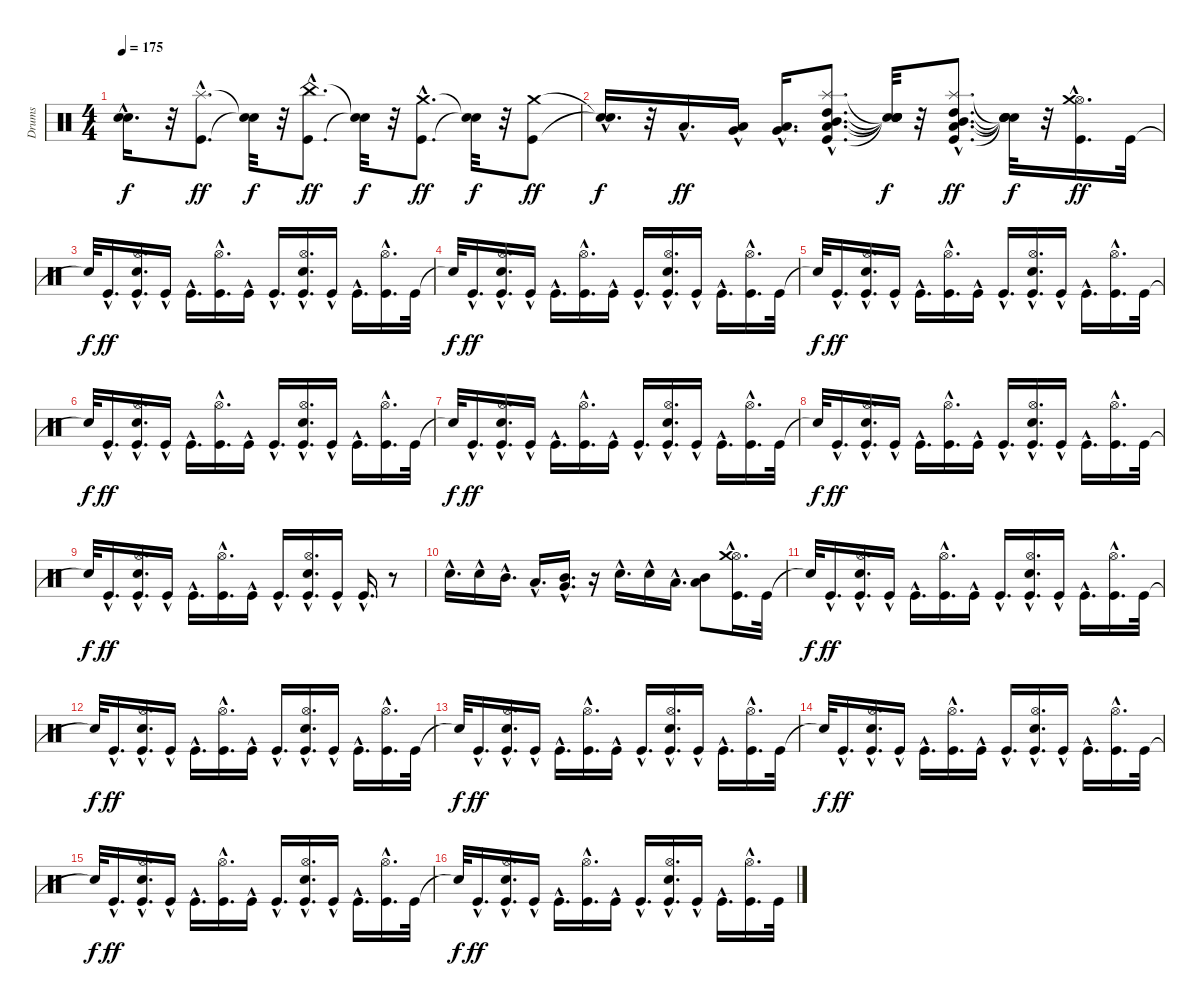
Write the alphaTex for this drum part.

\track ("Drums" "Drums") {instrument percussion}
\staff {score}
\articulation defaults
\ts (4 4)
\tempo 175
\clef neutral
\ks c
("Snare (hit)"{hac t} "Snare (hit)"{hac t}).16{d dy f} r.32 ("Kick (hit)"{hac} "Splash (hit)"{hac}).8{d dy ff} ("Snare (hit)"{t} "Snare (hit)"{t}).32{dy f} r.32 ("Kick (hit)"{hac} "China (hit)"{hac}).8{d dy ff} ("Snare (hit)"{t} "Snare (hit)"{t}).32{dy f} r.32 ("Kick (hit)"{hac} "Crash medium (hit)"{hac}).8{d dy ff} ("Snare (hit)"{t} "Snare (hit)"{t}).32{dy f} r.32 ("Kick (hit)" "Crash medium (hit)").8{dy ff} |
("Snare (hit)"{hac t} "Snare (hit)"{hac t}).16{d dy f} r.32 "Low Tom (hit)"{hac}.16{d dy ff} ("Very Low Tom (hit)"{hac} "Low Tom (hit)"{hac}).16 ("Very Low Tom (hit)"{hac} "Low Tom (hit)"{hac}).16{d} ("Kick (hit)"{hac} "Low Tom (hit)"{hac} "Mid Tom (hit)"{hac} "High Tom (hit)"{hac} "Splash (hit)"{hac}).8{d} ("Snare (hit)"{t} "Snare (hit)"{t} "Snare (hit)"{t} "Snare (hit)"{t} "Snare (hit)"{t}).32{dy f} r.32 ("Kick (hit)"{hac} "Low Tom (hit)"{hac} "Mid Tom (hit)"{hac} "High Tom (hit)"{hac} "Splash (hit)"{hac}).8{d dy ff} ("Snare (hit)"{t} "Snare (hit)"{t} "Snare (hit)"{t} "Snare (hit)"{t} "Snare (hit)"{t}).32{dy f} r.32 ("Kick (hit)"{hac} "Hi-Hat (open)"{hac} "Crash medium (hit)"{hac}).16{d dy ff} "Kick (hit)".32 |
"Snare (hit)"{t}.32{dy f} "Kick (hit)"{hac}.16{d dy ff} ("Kick (hit)"{hac} "Electric Snare (hit)"{hac} "Hi-Hat (open)"{hac}).16{d} "Kick (hit)"{hac}.16 "Kick (hit)"{hac}.16{d} ("Kick (hit)"{hac} "Hi-Hat (open)"{hac}).16{d} "Kick (hit)"{hac}.16 "Kick (hit)"{hac}.16{d} ("Kick (hit)"{hac} "Electric Snare (hit)"{hac} "Hi-Hat (open)"{hac}).16{d} "Kick (hit)"{hac}.16 "Kick (hit)"{hac}.16{d} ("Kick (hit)"{hac} "Hi-Hat (open)"{hac}).16{d} "Kick (hit)".32 |
"Snare (hit)"{t}.32{dy f} "Kick (hit)"{hac}.16{d dy ff} ("Kick (hit)"{hac} "Electric Snare (hit)"{hac} "Hi-Hat (open)"{hac}).16{d} "Kick (hit)"{hac}.16 "Kick (hit)"{hac}.16{d} ("Kick (hit)"{hac} "Hi-Hat (open)"{hac}).16{d} "Kick (hit)"{hac}.16 "Kick (hit)"{hac}.16{d} ("Kick (hit)"{hac} "Electric Snare (hit)"{hac} "Hi-Hat (open)"{hac}).16{d} "Kick (hit)"{hac}.16 "Kick (hit)"{hac}.16{d} ("Kick (hit)"{hac} "Hi-Hat (open)"{hac}).16{d} "Kick (hit)".32 |
"Snare (hit)"{t}.32{dy f} "Kick (hit)"{hac}.16{d dy ff} ("Kick (hit)"{hac} "Electric Snare (hit)"{hac} "Hi-Hat (open)"{hac}).16{d} "Kick (hit)"{hac}.16 "Kick (hit)"{hac}.16{d} ("Kick (hit)"{hac} "Hi-Hat (open)"{hac}).16{d} "Kick (hit)"{hac}.16 "Kick (hit)"{hac}.16{d} ("Kick (hit)"{hac} "Electric Snare (hit)"{hac} "Hi-Hat (open)"{hac}).16{d} "Kick (hit)"{hac}.16 "Kick (hit)"{hac}.16{d} ("Kick (hit)"{hac} "Hi-Hat (open)"{hac}).16{d} "Kick (hit)".32 |
"Snare (hit)"{t}.32{dy f} "Kick (hit)"{hac}.16{d dy ff} ("Kick (hit)"{hac} "Electric Snare (hit)"{hac} "Hi-Hat (open)"{hac}).16{d} "Kick (hit)"{hac}.16 "Kick (hit)"{hac}.16{d} ("Kick (hit)"{hac} "Hi-Hat (open)"{hac}).16{d} "Kick (hit)"{hac}.16 "Kick (hit)"{hac}.16{d} ("Kick (hit)"{hac} "Electric Snare (hit)"{hac} "Hi-Hat (open)"{hac}).16{d} "Kick (hit)"{hac}.16 "Kick (hit)"{hac}.16{d} ("Kick (hit)"{hac} "Hi-Hat (open)"{hac}).16{d} "Kick (hit)".32 |
"Snare (hit)"{t}.32{dy f} "Kick (hit)"{hac}.16{d dy ff} ("Kick (hit)"{hac} "Electric Snare (hit)"{hac} "Hi-Hat (open)"{hac}).16{d} "Kick (hit)"{hac}.16 "Kick (hit)"{hac}.16{d} ("Kick (hit)"{hac} "Hi-Hat (open)"{hac}).16{d} "Kick (hit)"{hac}.16 "Kick (hit)"{hac}.16{d} ("Kick (hit)"{hac} "Electric Snare (hit)"{hac} "Hi-Hat (open)"{hac}).16{d} "Kick (hit)"{hac}.16 "Kick (hit)"{hac}.16{d} ("Kick (hit)"{hac} "Hi-Hat (open)"{hac}).16{d} "Kick (hit)".32 |
"Snare (hit)"{t}.32{dy f} "Kick (hit)"{hac}.16{d dy ff} ("Kick (hit)"{hac} "Electric Snare (hit)"{hac} "Hi-Hat (open)"{hac}).16{d} "Kick (hit)"{hac}.16 "Kick (hit)"{hac}.16{d} ("Kick (hit)"{hac} "Hi-Hat (open)"{hac}).16{d} "Kick (hit)"{hac}.16 "Kick (hit)"{hac}.16{d} ("Kick (hit)"{hac} "Electric Snare (hit)"{hac} "Hi-Hat (open)"{hac}).16{d} "Kick (hit)"{hac}.16 "Kick (hit)"{hac}.16{d} ("Kick (hit)"{hac} "Hi-Hat (open)"{hac}).16{d} "Kick (hit)".32 |
"Snare (hit)"{t}.32{dy f} "Kick (hit)"{hac}.16{d dy ff} ("Kick (hit)"{hac} "Electric Snare (hit)"{hac} "Hi-Hat (open)"{hac}).16{d} "Kick (hit)"{hac}.16 "Kick (hit)"{hac}.16{d} ("Kick (hit)"{hac} "Hi-Hat (open)"{hac}).16{d} "Kick (hit)"{hac}.16 "Kick (hit)"{hac}.16{d} ("Kick (hit)"{hac} "Electric Snare (hit)"{hac} "Hi-Hat (open)"{hac}).16{d} "Kick (hit)"{hac}.16 "Kick (hit)"{hac}.16{d} r.8 |
"Electric Snare (hit)"{hac}.16{d} "Electric Snare (hit)"{hac}.16 "Mid Tom (hit)"{hac}.16{d} "Low Tom (hit)"{hac}.16{d} ("Very Low Tom (hit)"{hac} "Mid Tom (hit)"{hac}).16{d} r.16 "Electric Snare (hit)"{hac}.16{d} "Electric Snare (hit)"{hac}.16 "Low Tom (hit)"{hac}.16{d} ("Low Floor Tom (hit)" "Mid Tom (hit)").8 ("Kick (hit)"{hac} "Hi-Hat (open)"{hac} "Crash medium (hit)"{hac}).16{d} "Kick (hit)".32 |
"Snare (hit)"{t}.32{dy f} "Kick (hit)"{hac}.16{d dy ff} ("Kick (hit)"{hac} "Electric Snare (hit)"{hac} "Hi-Hat (open)"{hac}).16{d} "Kick (hit)"{hac}.16 "Kick (hit)"{hac}.16{d} ("Kick (hit)"{hac} "Hi-Hat (open)"{hac}).16{d} "Kick (hit)"{hac}.16 "Kick (hit)"{hac}.16{d} ("Kick (hit)"{hac} "Electric Snare (hit)"{hac} "Hi-Hat (open)"{hac}).16{d} "Kick (hit)"{hac}.16 "Kick (hit)"{hac}.16{d} ("Kick (hit)"{hac} "Hi-Hat (open)"{hac}).16{d} "Kick (hit)".32 |
"Snare (hit)"{t}.32{dy f} "Kick (hit)"{hac}.16{d dy ff} ("Kick (hit)"{hac} "Electric Snare (hit)"{hac} "Hi-Hat (open)"{hac}).16{d} "Kick (hit)"{hac}.16 "Kick (hit)"{hac}.16{d} ("Kick (hit)"{hac} "Hi-Hat (open)"{hac}).16{d} "Kick (hit)"{hac}.16 "Kick (hit)"{hac}.16{d} ("Kick (hit)"{hac} "Electric Snare (hit)"{hac} "Hi-Hat (open)"{hac}).16{d} "Kick (hit)"{hac}.16 "Kick (hit)"{hac}.16{d} ("Kick (hit)"{hac} "Hi-Hat (open)"{hac}).16{d} "Kick (hit)".32 |
"Snare (hit)"{t}.32{dy f} "Kick (hit)"{hac}.16{d dy ff} ("Kick (hit)"{hac} "Electric Snare (hit)"{hac} "Hi-Hat (open)"{hac}).16{d} "Kick (hit)"{hac}.16 "Kick (hit)"{hac}.16{d} ("Kick (hit)"{hac} "Hi-Hat (open)"{hac}).16{d} "Kick (hit)"{hac}.16 "Kick (hit)"{hac}.16{d} ("Kick (hit)"{hac} "Electric Snare (hit)"{hac} "Hi-Hat (open)"{hac}).16{d} "Kick (hit)"{hac}.16 "Kick (hit)"{hac}.16{d} ("Kick (hit)"{hac} "Hi-Hat (open)"{hac}).16{d} "Kick (hit)".32 |
"Snare (hit)"{t}.32{dy f} "Kick (hit)"{hac}.16{d dy ff} ("Kick (hit)"{hac} "Electric Snare (hit)"{hac} "Hi-Hat (open)"{hac}).16{d} "Kick (hit)"{hac}.16 "Kick (hit)"{hac}.16{d} ("Kick (hit)"{hac} "Hi-Hat (open)"{hac}).16{d} "Kick (hit)"{hac}.16 "Kick (hit)"{hac}.16{d} ("Kick (hit)"{hac} "Electric Snare (hit)"{hac} "Hi-Hat (open)"{hac}).16{d} "Kick (hit)"{hac}.16 "Kick (hit)"{hac}.16{d} ("Kick (hit)"{hac} "Hi-Hat (open)"{hac}).16{d} "Kick (hit)".32 |
"Snare (hit)"{t}.32{dy f} "Kick (hit)"{hac}.16{d dy ff} ("Kick (hit)"{hac} "Electric Snare (hit)"{hac} "Hi-Hat (open)"{hac}).16{d} "Kick (hit)"{hac}.16 "Kick (hit)"{hac}.16{d} ("Kick (hit)"{hac} "Hi-Hat (open)"{hac}).16{d} "Kick (hit)"{hac}.16 "Kick (hit)"{hac}.16{d} ("Kick (hit)"{hac} "Electric Snare (hit)"{hac} "Hi-Hat (open)"{hac}).16{d} "Kick (hit)"{hac}.16 "Kick (hit)"{hac}.16{d} ("Kick (hit)"{hac} "Hi-Hat (open)"{hac}).16{d} "Kick (hit)".32 |
"Snare (hit)"{t}.32{dy f} "Kick (hit)"{hac}.16{d dy ff} ("Kick (hit)"{hac} "Electric Snare (hit)"{hac} "Hi-Hat (open)"{hac}).16{d} "Kick (hit)"{hac}.16 "Kick (hit)"{hac}.16{d} ("Kick (hit)"{hac} "Hi-Hat (open)"{hac}).16{d} "Kick (hit)"{hac}.16 "Kick (hit)"{hac}.16{d} ("Kick (hit)"{hac} "Electric Snare (hit)"{hac} "Hi-Hat (open)"{hac}).16{d} "Kick (hit)"{hac}.16 "Kick (hit)"{hac}.16{d} ("Kick (hit)"{hac} "Hi-Hat (open)"{hac}).16{d} "Kick (hit)".32
